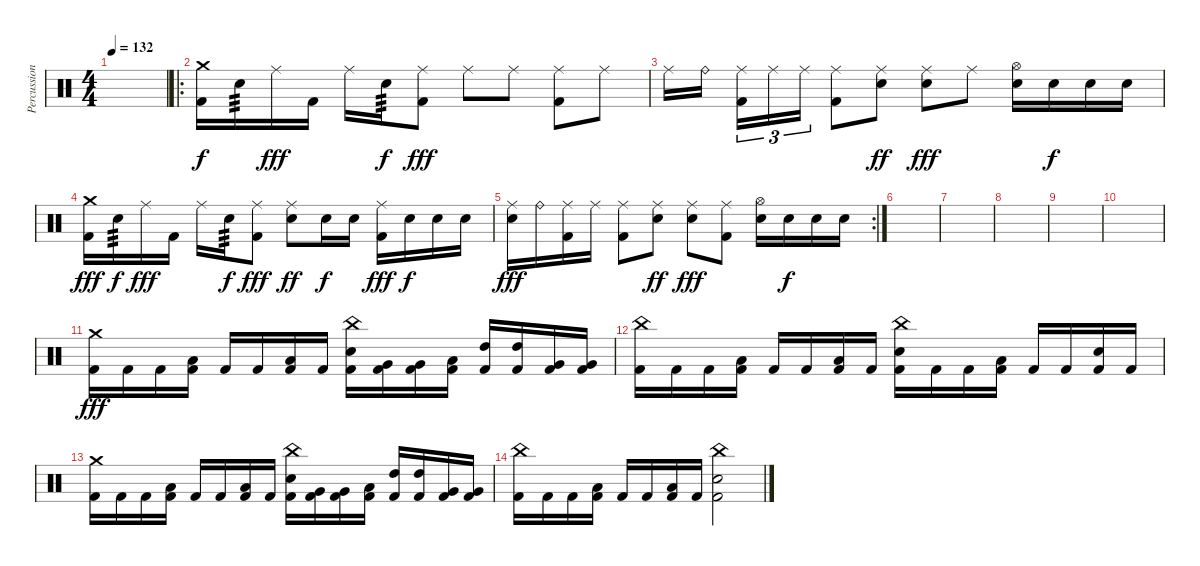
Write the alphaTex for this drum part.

\track ("Percussion" "Percussion") {instrument percussion}
\staff {score}
\articulation defaults
\ts (4 4)
\tempo 132
\clef neutral
\ks c
|
\ro
("Kick (hit) 2" "Crash medium (hit)").16 "Electric Snare (hit)".16{tp 3 dy f} "Ride (middle)".16{dy fff} "Kick (hit) 2".16 "Ride (middle)".16 "Electric Snare (hit)".16{tp 3 dy f} ("Ride (middle)" "Kick (hit) 2").8{dy fff} "Ride (middle)".8 "Ride (middle)".8 ("Ride (middle)" "Kick (hit) 2").8 "Ride (middle)".8 |
"Ride (middle)".16 "Ride (bell)".16{beam splitsecondary} ("Ride (middle)" "Kick (hit) 2").16{tu (3 2)} "Ride (middle)".16{tu (3 2)} "Ride (middle)".16{tu (3 2)} ("Ride (middle)" "Kick (hit) 2").8 ("Ride (middle)" "Electric Snare (hit)").8{dy ff} ("Ride (middle)" "Electric Snare (hit)").8{dy fff} "Ride (middle)".8 ("Hi-Hat (open)" "Electric Snare (hit)").16 "Electric Snare (hit)".16{dy f} "Electric Snare (hit)".16 "Electric Snare (hit)".16 |
("Kick (hit) 2" "Crash medium (hit)").16{dy fff} "Electric Snare (hit)".16{tp 3 dy f} "Ride (middle)".16{dy fff} "Kick (hit) 2".16 "Ride (middle)".16 "Electric Snare (hit)".16{tp 3 dy f} ("Ride (middle)" "Kick (hit) 2").8{dy fff} ("Ride (middle)" "Electric Snare (hit)").8{dy ff} "Electric Snare (hit)".16{dy f} "Electric Snare (hit)".16 ("Ride (middle)" "Kick (hit) 2").16{dy fff} "Electric Snare (hit)".16{dy f} "Electric Snare (hit)".16 "Electric Snare (hit)".16 |
\rc 2
("Ride (middle)" "Electric Snare (hit)").16{dy fff} "Ride (bell)".16 ("Ride (middle)" "Kick (hit) 2").16 "Ride (middle)".16 ("Ride (middle)" "Kick (hit) 2").8 ("Ride (middle)" "Electric Snare (hit)").8{dy ff} ("Ride (middle)" "Electric Snare (hit)").8{dy fff} ("Ride (middle)" "Kick (hit) 2").8 ("Hi-Hat (open)" "Electric Snare (hit)").16 "Electric Snare (hit)".16{dy f} "Electric Snare (hit)".16 "Electric Snare (hit)".16 |
|
|
|
|
|
("Kick (hit) 2" "Crash medium (hit)").16{dy fff} "Kick (hit) 2".16 "Kick (hit) 2".16 ("Kick (hit) 2" "Low Floor Tom (hit)").16 "Kick (hit) 2".16 "Kick (hit) 2".16 ("Kick (hit) 2" "Low Tom (hit)").16 "Kick (hit) 2".16 ("Kick (hit) 2" "China (hit)" "Electric Snare (hit)").16 ("Kick (hit) 2" "Very Low Tom (hit)").16 ("Kick (hit) 2" "Very Low Tom (hit)").16 ("Kick (hit) 2" "Low Floor Tom (hit)").16 ("Kick (hit) 2" "High Tom (hit)").16 ("Kick (hit) 2" "High Tom (hit)").16 ("Kick (hit) 2" "Very Low Tom (hit)").16 ("Kick (hit) 2" "Very Low Tom (hit)").16 |
("Kick (hit) 2" "China (hit)").16 "Kick (hit) 2".16 "Kick (hit) 2".16 ("Kick (hit) 2" "Low Floor Tom (hit)").16 "Kick (hit) 2".16 "Kick (hit) 2".16 ("Kick (hit) 2" "Low Tom (hit)").16 "Kick (hit) 2".16 ("Kick (hit) 2" "China (hit)" "Electric Snare (hit)").16 "Kick (hit) 2".16 "Kick (hit) 2".16 ("Kick (hit) 2" "Low Floor Tom (hit)").16 "Kick (hit) 2".16 "Kick (hit) 2".16 ("Kick (hit) 2" "Electric Snare (hit)").16 "Kick (hit) 2".16 |
("Kick (hit) 2" "Crash medium (hit)").16 "Kick (hit) 2".16 "Kick (hit) 2".16 ("Kick (hit) 2" "Low Floor Tom (hit)").16 "Kick (hit) 2".16 "Kick (hit) 2".16 ("Kick (hit) 2" "Low Tom (hit)").16 "Kick (hit) 2".16 ("Kick (hit) 2" "China (hit)" "Electric Snare (hit)").16 ("Kick (hit) 2" "Very Low Tom (hit)").16 ("Kick (hit) 2" "Very Low Tom (hit)").16 ("Kick (hit) 2" "Low Floor Tom (hit)").16 ("Kick (hit) 2" "High Tom (hit)").16 ("Kick (hit) 2" "High Tom (hit)").16 ("Kick (hit) 2" "Very Low Tom (hit)").16 ("Kick (hit) 2" "Very Low Tom (hit)").16 |
("Kick (hit) 2" "China (hit)").16 "Kick (hit) 2".16 "Kick (hit) 2".16 ("Kick (hit) 2" "Low Floor Tom (hit)").16 "Kick (hit) 2".16 "Kick (hit) 2".16 ("Kick (hit) 2" "Low Tom (hit)").16 "Kick (hit) 2".16 ("Kick (hit) 2" "China (hit)" "Electric Snare (hit)").2
